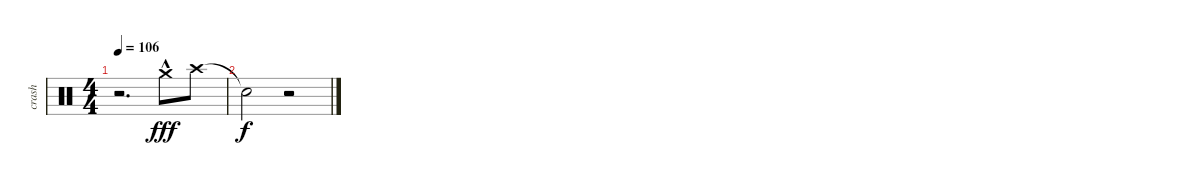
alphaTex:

\track ("crash" "crash") {instrument percussion}
\staff {score}
\articulation defaults
\ts (4 4)
\tempo 106
\clef neutral
\ks c
r.2{d dy fff} "Crash medium (hit)"{hac}.8 "Crash high (hit)".8 |
"Snare (hit)"{t}.2{dy f} r.2
